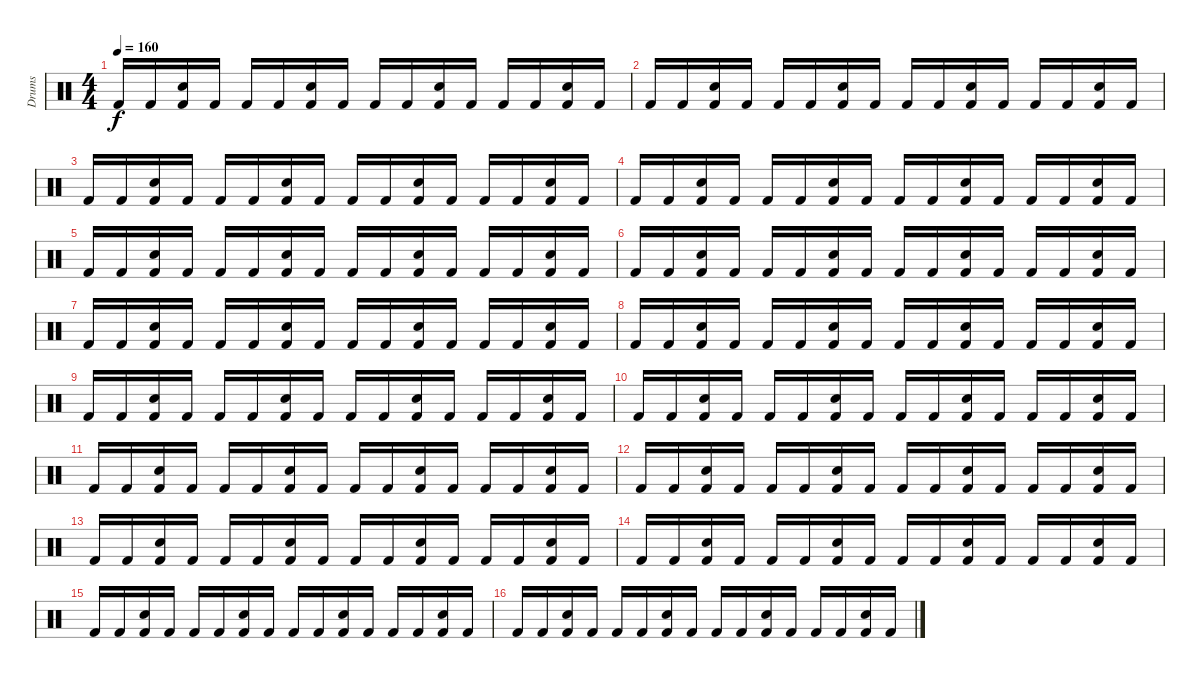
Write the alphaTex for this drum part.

\track ("Drums" "Drums") {instrument percussion}
\staff {score}
\articulation defaults
\ts (4 4)
\tempo 160
\clef neutral
\ks c "Kick (hit) 2".16{dy f} "Kick (hit) 2".16
("Snare (hit) 2" "Kick (hit) 2").16 "Kick (hit) 2".16 "Kick (hit) 2".16 "Kick (hit) 2".16 ("Snare (hit) 2" "Kick (hit) 2").16 "Kick (hit) 2".16 "Kick (hit) 2".16 "Kick (hit) 2".16 ("Snare (hit) 2" "Kick (hit) 2").16 "Kick (hit) 2".16 "Kick (hit) 2".16 "Kick (hit) 2".16 ("Snare (hit) 2" "Kick (hit) 2").16 "Kick (hit) 2".16 |
"Kick (hit) 2".16 "Kick (hit) 2".16 ("Snare (hit) 2" "Kick (hit) 2").16 "Kick (hit) 2".16 "Kick (hit) 2".16 "Kick (hit) 2".16 ("Snare (hit) 2" "Kick (hit) 2").16 "Kick (hit) 2".16 "Kick (hit) 2".16 "Kick (hit) 2".16 ("Snare (hit) 2" "Kick (hit) 2").16 "Kick (hit) 2".16 "Kick (hit) 2".16 "Kick (hit) 2".16 ("Snare (hit) 2" "Kick (hit) 2").16 "Kick (hit) 2".16 |
"Kick (hit) 2".16 "Kick (hit) 2".16 ("Snare (hit) 2" "Kick (hit) 2").16 "Kick (hit) 2".16 "Kick (hit) 2".16 "Kick (hit) 2".16 ("Snare (hit) 2" "Kick (hit) 2").16 "Kick (hit) 2".16 "Kick (hit) 2".16 "Kick (hit) 2".16 ("Snare (hit) 2" "Kick (hit) 2").16 "Kick (hit) 2".16 "Kick (hit) 2".16 "Kick (hit) 2".16 ("Snare (hit) 2" "Kick (hit) 2").16 "Kick (hit) 2".16 |
"Kick (hit) 2".16 "Kick (hit) 2".16 ("Snare (hit) 2" "Kick (hit) 2").16 "Kick (hit) 2".16 "Kick (hit) 2".16 "Kick (hit) 2".16 ("Snare (hit) 2" "Kick (hit) 2").16 "Kick (hit) 2".16 "Kick (hit) 2".16 "Kick (hit) 2".16 ("Snare (hit) 2" "Kick (hit) 2").16 "Kick (hit) 2".16 "Kick (hit) 2".16 "Kick (hit) 2".16 ("Snare (hit) 2" "Kick (hit) 2").16 "Kick (hit) 2".16 |
"Kick (hit) 2".16 "Kick (hit) 2".16 ("Snare (hit) 2" "Kick (hit) 2").16 "Kick (hit) 2".16 "Kick (hit) 2".16 "Kick (hit) 2".16 ("Snare (hit) 2" "Kick (hit) 2").16 "Kick (hit) 2".16 "Kick (hit) 2".16 "Kick (hit) 2".16 ("Snare (hit) 2" "Kick (hit) 2").16 "Kick (hit) 2".16 "Kick (hit) 2".16 "Kick (hit) 2".16 ("Snare (hit) 2" "Kick (hit) 2").16 "Kick (hit) 2".16 |
"Kick (hit) 2".16 "Kick (hit) 2".16 ("Snare (hit) 2" "Kick (hit) 2").16 "Kick (hit) 2".16 "Kick (hit) 2".16 "Kick (hit) 2".16 ("Snare (hit) 2" "Kick (hit) 2").16 "Kick (hit) 2".16 "Kick (hit) 2".16 "Kick (hit) 2".16 ("Snare (hit) 2" "Kick (hit) 2").16 "Kick (hit) 2".16 "Kick (hit) 2".16 "Kick (hit) 2".16 ("Snare (hit) 2" "Kick (hit) 2").16 "Kick (hit) 2".16 |
"Kick (hit) 2".16 "Kick (hit) 2".16 ("Snare (hit) 2" "Kick (hit) 2").16 "Kick (hit) 2".16 "Kick (hit) 2".16 "Kick (hit) 2".16 ("Snare (hit) 2" "Kick (hit) 2").16 "Kick (hit) 2".16 "Kick (hit) 2".16 "Kick (hit) 2".16 ("Snare (hit) 2" "Kick (hit) 2").16 "Kick (hit) 2".16 "Kick (hit) 2".16 "Kick (hit) 2".16 ("Snare (hit) 2" "Kick (hit) 2").16 "Kick (hit) 2".16 |
"Kick (hit) 2".16 "Kick (hit) 2".16 ("Snare (hit) 2" "Kick (hit) 2").16 "Kick (hit) 2".16 "Kick (hit) 2".16 "Kick (hit) 2".16 ("Snare (hit) 2" "Kick (hit) 2").16 "Kick (hit) 2".16 "Kick (hit) 2".16 "Kick (hit) 2".16 ("Snare (hit) 2" "Kick (hit) 2").16 "Kick (hit) 2".16 "Kick (hit) 2".16 "Kick (hit) 2".16 ("Snare (hit) 2" "Kick (hit) 2").16 "Kick (hit) 2".16 |
"Kick (hit) 2".16 "Kick (hit) 2".16 ("Snare (hit) 2" "Kick (hit) 2").16 "Kick (hit) 2".16 "Kick (hit) 2".16 "Kick (hit) 2".16 ("Snare (hit) 2" "Kick (hit) 2").16 "Kick (hit) 2".16 "Kick (hit) 2".16 "Kick (hit) 2".16 ("Snare (hit) 2" "Kick (hit) 2").16 "Kick (hit) 2".16 "Kick (hit) 2".16 "Kick (hit) 2".16 ("Snare (hit) 2" "Kick (hit) 2").16 "Kick (hit) 2".16 |
"Kick (hit) 2".16 "Kick (hit) 2".16 ("Snare (hit) 2" "Kick (hit) 2").16 "Kick (hit) 2".16 "Kick (hit) 2".16 "Kick (hit) 2".16 ("Snare (hit) 2" "Kick (hit) 2").16 "Kick (hit) 2".16 "Kick (hit) 2".16 "Kick (hit) 2".16 ("Snare (hit) 2" "Kick (hit) 2").16 "Kick (hit) 2".16 "Kick (hit) 2".16 "Kick (hit) 2".16 ("Snare (hit) 2" "Kick (hit) 2").16 "Kick (hit) 2".16 |
"Kick (hit) 2".16 "Kick (hit) 2".16 ("Snare (hit) 2" "Kick (hit) 2").16 "Kick (hit) 2".16 "Kick (hit) 2".16 "Kick (hit) 2".16 ("Snare (hit) 2" "Kick (hit) 2").16 "Kick (hit) 2".16 "Kick (hit) 2".16 "Kick (hit) 2".16 ("Snare (hit) 2" "Kick (hit) 2").16 "Kick (hit) 2".16 "Kick (hit) 2".16 "Kick (hit) 2".16 ("Snare (hit) 2" "Kick (hit) 2").16 "Kick (hit) 2".16 |
"Kick (hit) 2".16 "Kick (hit) 2".16 ("Snare (hit) 2" "Kick (hit) 2").16 "Kick (hit) 2".16 "Kick (hit) 2".16 "Kick (hit) 2".16 ("Snare (hit) 2" "Kick (hit) 2").16 "Kick (hit) 2".16 "Kick (hit) 2".16 "Kick (hit) 2".16 ("Snare (hit) 2" "Kick (hit) 2").16 "Kick (hit) 2".16 "Kick (hit) 2".16 "Kick (hit) 2".16 ("Snare (hit) 2" "Kick (hit) 2").16 "Kick (hit) 2".16 |
"Kick (hit) 2".16 "Kick (hit) 2".16 ("Snare (hit) 2" "Kick (hit) 2").16 "Kick (hit) 2".16 "Kick (hit) 2".16 "Kick (hit) 2".16 ("Snare (hit) 2" "Kick (hit) 2").16 "Kick (hit) 2".16 "Kick (hit) 2".16 "Kick (hit) 2".16 ("Snare (hit) 2" "Kick (hit) 2").16 "Kick (hit) 2".16 "Kick (hit) 2".16 "Kick (hit) 2".16 ("Snare (hit) 2" "Kick (hit) 2").16 "Kick (hit) 2".16 |
"Kick (hit) 2".16 "Kick (hit) 2".16 ("Snare (hit) 2" "Kick (hit) 2").16 "Kick (hit) 2".16 "Kick (hit) 2".16 "Kick (hit) 2".16 ("Snare (hit) 2" "Kick (hit) 2").16 "Kick (hit) 2".16 "Kick (hit) 2".16 "Kick (hit) 2".16 ("Snare (hit) 2" "Kick (hit) 2").16 "Kick (hit) 2".16 "Kick (hit) 2".16 "Kick (hit) 2".16 ("Snare (hit) 2" "Kick (hit) 2").16 "Kick (hit) 2".16 |
"Kick (hit) 2".16 "Kick (hit) 2".16 ("Snare (hit) 2" "Kick (hit) 2").16 "Kick (hit) 2".16 "Kick (hit) 2".16 "Kick (hit) 2".16 ("Snare (hit) 2" "Kick (hit) 2").16 "Kick (hit) 2".16 "Kick (hit) 2".16 "Kick (hit) 2".16 ("Snare (hit) 2" "Kick (hit) 2").16 "Kick (hit) 2".16 "Kick (hit) 2".16 "Kick (hit) 2".16 ("Snare (hit) 2" "Kick (hit) 2").16 "Kick (hit) 2".16 |
"Kick (hit) 2".16 "Kick (hit) 2".16 ("Snare (hit) 2" "Kick (hit) 2").16 "Kick (hit) 2".16 "Kick (hit) 2".16 "Kick (hit) 2".16 ("Snare (hit) 2" "Kick (hit) 2").16 "Kick (hit) 2".16 "Kick (hit) 2".16 "Kick (hit) 2".16 ("Snare (hit) 2" "Kick (hit) 2").16 "Kick (hit) 2".16 "Kick (hit) 2".16 "Kick (hit) 2".16 ("Snare (hit) 2" "Kick (hit) 2").16 "Kick (hit) 2".16
